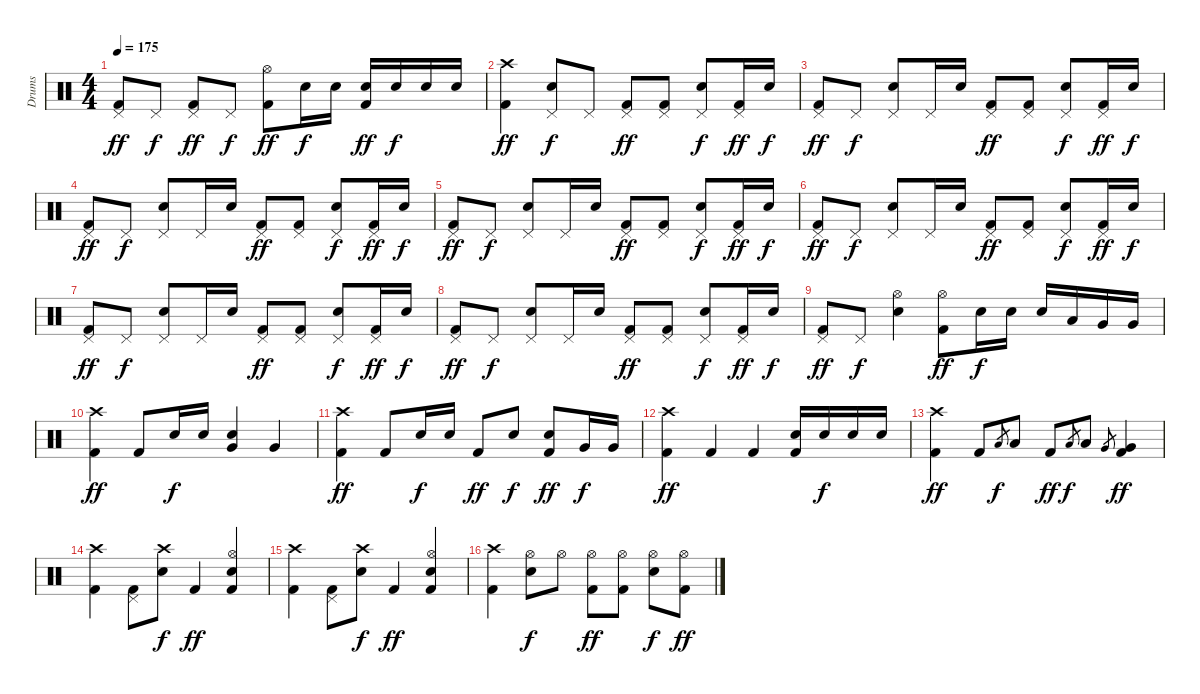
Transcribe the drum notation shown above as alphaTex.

\track ("Drums" "Drums") {instrument percussion}
\staff {score}
\articulation defaults
\ts (4 4)
\tempo 175
\clef neutral
\ks c
("Pedal Hi-Hat (hit)" "Kick (hit) 2").8{dy ff} "Pedal Hi-Hat (hit)".8{dy f} ("Pedal Hi-Hat (hit)" "Kick (hit) 2").8{dy ff} "Pedal Hi-Hat (hit)".8{dy f} ("Hi-Hat (open)" "Kick (hit) 2").8{dy ff} "Electric Snare (hit)".16{dy f} "Electric Snare (hit)".16 ("Electric Snare (hit)" "Kick (hit) 2").16{dy ff} "Electric Snare (hit)".16{dy f} "Electric Snare (hit)".16 "Electric Snare (hit)".16 |
("Crash high (hit)" "Kick (hit) 2").4{dy ff} ("Pedal Hi-Hat (hit)" "Electric Snare (hit)").8{dy f} "Pedal Hi-Hat (hit)".8 ("Pedal Hi-Hat (hit)" "Kick (hit) 2").8{dy ff} ("Pedal Hi-Hat (hit)" "Kick (hit) 2").8 ("Pedal Hi-Hat (hit)" "Electric Snare (hit)").8{dy f} ("Pedal Hi-Hat (hit)" "Kick (hit) 2").16{dy ff} "Electric Snare (hit)".16{dy f} |
("Pedal Hi-Hat (hit)" "Kick (hit) 2").8{dy ff} "Pedal Hi-Hat (hit)".8{dy f} ("Pedal Hi-Hat (hit)" "Electric Snare (hit)").8 "Pedal Hi-Hat (hit)".16 "Electric Snare (hit)".16 ("Pedal Hi-Hat (hit)" "Kick (hit) 2").8{dy ff} ("Pedal Hi-Hat (hit)" "Kick (hit) 2").8 ("Pedal Hi-Hat (hit)" "Electric Snare (hit)").8{dy f} ("Pedal Hi-Hat (hit)" "Kick (hit) 2").16{dy ff} "Electric Snare (hit)".16{dy f} |
("Pedal Hi-Hat (hit)" "Kick (hit) 2").8{dy ff} "Pedal Hi-Hat (hit)".8{dy f} ("Pedal Hi-Hat (hit)" "Electric Snare (hit)").8 "Pedal Hi-Hat (hit)".16 "Electric Snare (hit)".16 ("Pedal Hi-Hat (hit)" "Kick (hit) 2").8{dy ff} ("Pedal Hi-Hat (hit)" "Kick (hit) 2").8 ("Pedal Hi-Hat (hit)" "Electric Snare (hit)").8{dy f} ("Pedal Hi-Hat (hit)" "Kick (hit) 2").16{dy ff} "Electric Snare (hit)".16{dy f} |
("Pedal Hi-Hat (hit)" "Kick (hit) 2").8{dy ff} "Pedal Hi-Hat (hit)".8{dy f} ("Pedal Hi-Hat (hit)" "Electric Snare (hit)").8 "Pedal Hi-Hat (hit)".16 "Electric Snare (hit)".16 ("Pedal Hi-Hat (hit)" "Kick (hit) 2").8{dy ff} ("Pedal Hi-Hat (hit)" "Kick (hit) 2").8 ("Pedal Hi-Hat (hit)" "Electric Snare (hit)").8{dy f} ("Pedal Hi-Hat (hit)" "Kick (hit) 2").16{dy ff} "Electric Snare (hit)".16{dy f} |
("Pedal Hi-Hat (hit)" "Kick (hit) 2").8{dy ff} "Pedal Hi-Hat (hit)".8{dy f} ("Pedal Hi-Hat (hit)" "Electric Snare (hit)").8 "Pedal Hi-Hat (hit)".16 "Electric Snare (hit)".16 ("Pedal Hi-Hat (hit)" "Kick (hit) 2").8{dy ff} ("Pedal Hi-Hat (hit)" "Kick (hit) 2").8 ("Pedal Hi-Hat (hit)" "Electric Snare (hit)").8{dy f} ("Pedal Hi-Hat (hit)" "Kick (hit) 2").16{dy ff} "Electric Snare (hit)".16{dy f} |
("Pedal Hi-Hat (hit)" "Kick (hit) 2").8{dy ff} "Pedal Hi-Hat (hit)".8{dy f} ("Pedal Hi-Hat (hit)" "Electric Snare (hit)").8 "Pedal Hi-Hat (hit)".16 "Electric Snare (hit)".16 ("Pedal Hi-Hat (hit)" "Kick (hit) 2").8{dy ff} ("Pedal Hi-Hat (hit)" "Kick (hit) 2").8 ("Pedal Hi-Hat (hit)" "Electric Snare (hit)").8{dy f} ("Pedal Hi-Hat (hit)" "Kick (hit) 2").16{dy ff} "Electric Snare (hit)".16{dy f} |
("Pedal Hi-Hat (hit)" "Kick (hit) 2").8{dy ff} "Pedal Hi-Hat (hit)".8{dy f} ("Pedal Hi-Hat (hit)" "Electric Snare (hit)").8 "Pedal Hi-Hat (hit)".16 "Electric Snare (hit)".16 ("Pedal Hi-Hat (hit)" "Kick (hit) 2").8{dy ff} ("Pedal Hi-Hat (hit)" "Kick (hit) 2").8 ("Pedal Hi-Hat (hit)" "Electric Snare (hit)").8{dy f} ("Pedal Hi-Hat (hit)" "Kick (hit) 2").16{dy ff} "Electric Snare (hit)".16{dy f} |
("Pedal Hi-Hat (hit)" "Kick (hit) 2").8{dy ff} "Pedal Hi-Hat (hit)".8{dy f} ("Hi-Hat (open)" "Electric Snare (hit)").4 ("Hi-Hat (open)" "Kick (hit) 2").8{dy ff} "Electric Snare (hit)".16{dy f} "Electric Snare (hit)".16 "Electric Snare (hit)".16 "Low Tom (hit)".16 "Very Low Tom (hit)".16 "Very Low Tom (hit)".16 |
("Crash high (hit)" "Kick (hit) 2").4{dy ff} "Kick (hit) 2".8 "Electric Snare (hit)".16{dy f} "Electric Snare (hit)".16 ("Very Low Tom (hit)" "Electric Snare (hit)").4 "Very Low Tom (hit)".4 |
("Crash high (hit)" "Kick (hit) 2").4{dy ff} "Kick (hit) 2".8 "Electric Snare (hit)".16{dy f} "Electric Snare (hit)".16 "Kick (hit) 2".8{dy ff} "Electric Snare (hit)".8{dy f} ("Electric Snare (hit)" "Kick (hit) 2").8{dy ff} "Very Low Tom (hit)".16{dy f} "Very Low Tom (hit)".16 |
("Crash high (hit)" "Kick (hit) 2").4{dy ff} "Kick (hit) 2".4 "Kick (hit) 2".4 ("Electric Snare (hit)" "Kick (hit) 2").16 "Electric Snare (hit)".16{dy f} "Electric Snare (hit)".16 "Electric Snare (hit)".16 |
("Crash high (hit)" "Kick (hit) 2").4{dy ff} "Kick (hit) 2".8 "Low Tom (hit)".8{gr dy f} "Low Tom (hit)".8 "Kick (hit) 2".8{dy ff} "Low Tom (hit)".8{gr dy f} "Low Tom (hit)".8 "Very Low Tom (hit)".8{gr} ("Very Low Tom (hit)" "Kick (hit) 2").4{dy ff} |
("Crash high (hit)" "Kick (hit) 2").4 ("Pedal Hi-Hat (hit)" "Kick (hit) 2").8 ("Crash high (hit)" "Electric Snare (hit)").8{dy f} "Kick (hit) 2".4{dy ff} ("Hi-Hat (open)" "Electric Snare (hit)" "Kick (hit) 2").4 |
("Crash high (hit)" "Kick (hit) 2").4 ("Pedal Hi-Hat (hit)" "Kick (hit) 2").8 ("Crash high (hit)" "Electric Snare (hit)").8{dy f} "Kick (hit) 2".4{dy ff} ("Hi-Hat (open)" "Electric Snare (hit)" "Kick (hit) 2").4 |
("Crash high (hit)" "Kick (hit) 2").4 ("Hi-Hat (open)" "Electric Snare (hit)").8{dy f} "Hi-Hat (open)".8 ("Hi-Hat (open)" "Kick (hit) 2").8{dy ff} ("Hi-Hat (open)" "Kick (hit) 2").8 ("Hi-Hat (open)" "Electric Snare (hit)").8{dy f} ("Hi-Hat (open)" "Kick (hit) 2").8{dy ff}
